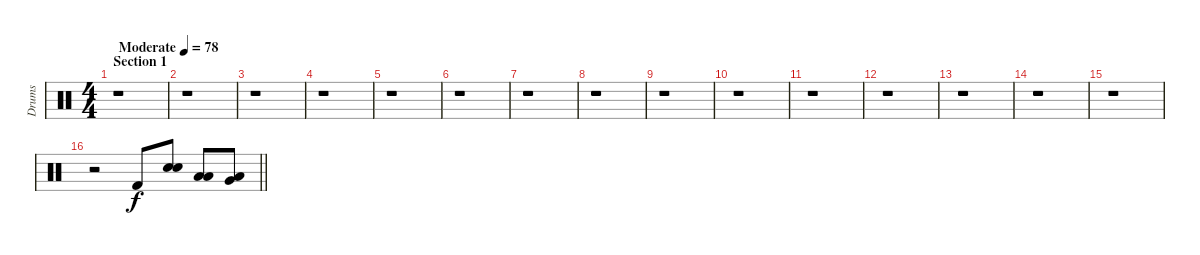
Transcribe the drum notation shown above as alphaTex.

\track ("Drums" "Drums") {instrument percussion}
\staff {score}
\articulation defaults
\ts (4 4)
\section ("" "Section 1")
\tempo (78 "Moderate")
\clef neutral
\ks c
r.1{dy f} |
r.1 |
r.1 |
r.1 |
r.1 |
r.1 |
r.1 |
r.1 |
r.1 |
r.1 |
r.1 |
r.1 |
r.1 |
r.1 |
r.1 |
\barLineRight lightlight
r.2 "Kick (hit) 2".8 ("Electric Snare (hit)" "Electric Snare (hit)").8{bu 60} ("Low Tom (hit)" "Low Floor Tom (hit)").8 ("Very Low Tom (hit)" "Low Floor Tom (hit)").8
